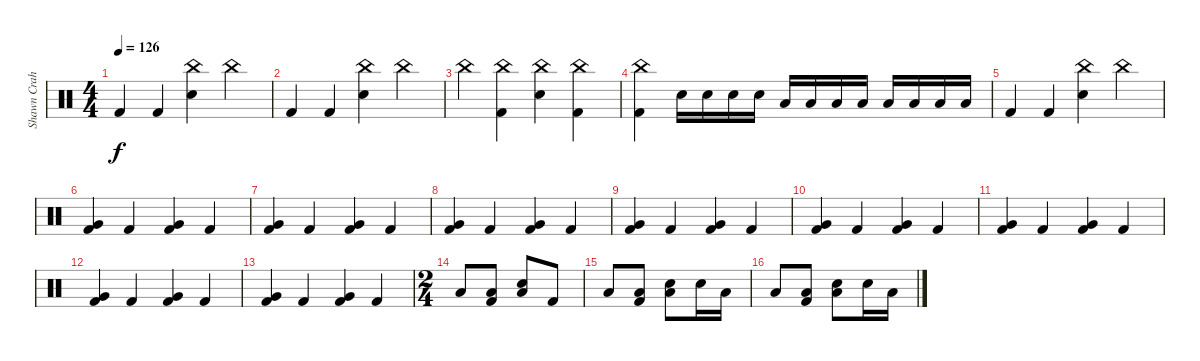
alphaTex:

\track ("Shawn Crahan" "Shawn Crah") {instrument percussion}
\staff {score}
\articulation defaults
\ts (4 4)
\tempo 126
\clef neutral
\ks c "Kick (hit) 2".4{dy f} "Kick (hit) 2".4
("China (hit)" "Snare (hit) 2").4 "China (hit)".4 |
"Kick (hit) 2".4 "Kick (hit) 2".4 ("China (hit)" "Snare (hit) 2").4 "China (hit)".4 |
"China (hit)".4 ("China (hit)" "Kick (hit) 2").4 ("China (hit)" "Snare (hit) 2").4 ("China (hit)" "Kick (hit) 2").4 |
("China (hit)" "Kick (hit) 2").4 "Snare (hit) 2".16 "Snare (hit) 2".16 "Snare (hit) 2".16 "Snare (hit) 2".16 "Low Tom (hit)".16 "Low Tom (hit)".16 "Low Tom (hit)".16 "Low Tom (hit)".16 "Low Tom (hit)".16 "Low Tom (hit)".16 "Low Tom (hit)".16 "Low Tom (hit)".16 |
"Kick (hit) 2".4 "Kick (hit) 2".4 ("China (hit)" "Snare (hit) 2").4 "China (hit)".4 |
("Kick (hit) 2" "Very Low Tom (hit)").4 "Kick (hit) 2".4 ("Kick (hit) 2" "Very Low Tom (hit)").4 "Kick (hit) 2".4 |
("Kick (hit) 2" "Very Low Tom (hit)").4 "Kick (hit) 2".4 ("Kick (hit) 2" "Very Low Tom (hit)").4 "Kick (hit) 2".4 |
("Kick (hit) 2" "Very Low Tom (hit)").4 "Kick (hit) 2".4 ("Kick (hit) 2" "Very Low Tom (hit)").4 "Kick (hit) 2".4 |
("Kick (hit) 2" "Very Low Tom (hit)").4 "Kick (hit) 2".4 ("Kick (hit) 2" "Very Low Tom (hit)").4 "Kick (hit) 2".4 |
("Kick (hit) 2" "Very Low Tom (hit)").4 "Kick (hit) 2".4 ("Kick (hit) 2" "Very Low Tom (hit)").4 "Kick (hit) 2".4 |
("Kick (hit) 2" "Very Low Tom (hit)").4 "Kick (hit) 2".4 ("Kick (hit) 2" "Very Low Tom (hit)").4 "Kick (hit) 2".4 |
("Kick (hit) 2" "Very Low Tom (hit)").4 "Kick (hit) 2".4 ("Kick (hit) 2" "Very Low Tom (hit)").4 "Kick (hit) 2".4 |
("Kick (hit) 2" "Very Low Tom (hit)").4 "Kick (hit) 2".4 ("Kick (hit) 2" "Very Low Tom (hit)").4 "Kick (hit) 2".4 |
\ts (2 4)
"Low Tom (hit)".8 ("Low Tom (hit)" "Kick (hit) 2").8 ("Low Tom (hit)" "Snare (hit) 2").8 "Kick (hit) 2".8 |
"Low Tom (hit)".8 ("Low Tom (hit)" "Kick (hit) 2").8 ("Low Tom (hit)" "Snare (hit) 2").8 "Snare (hit) 2".16 "Low Tom (hit)".16 |
"Low Tom (hit)".8 ("Low Tom (hit)" "Kick (hit) 2").8 ("Low Tom (hit)" "Snare (hit) 2").8 "Snare (hit) 2".16 "Low Tom (hit)".16
